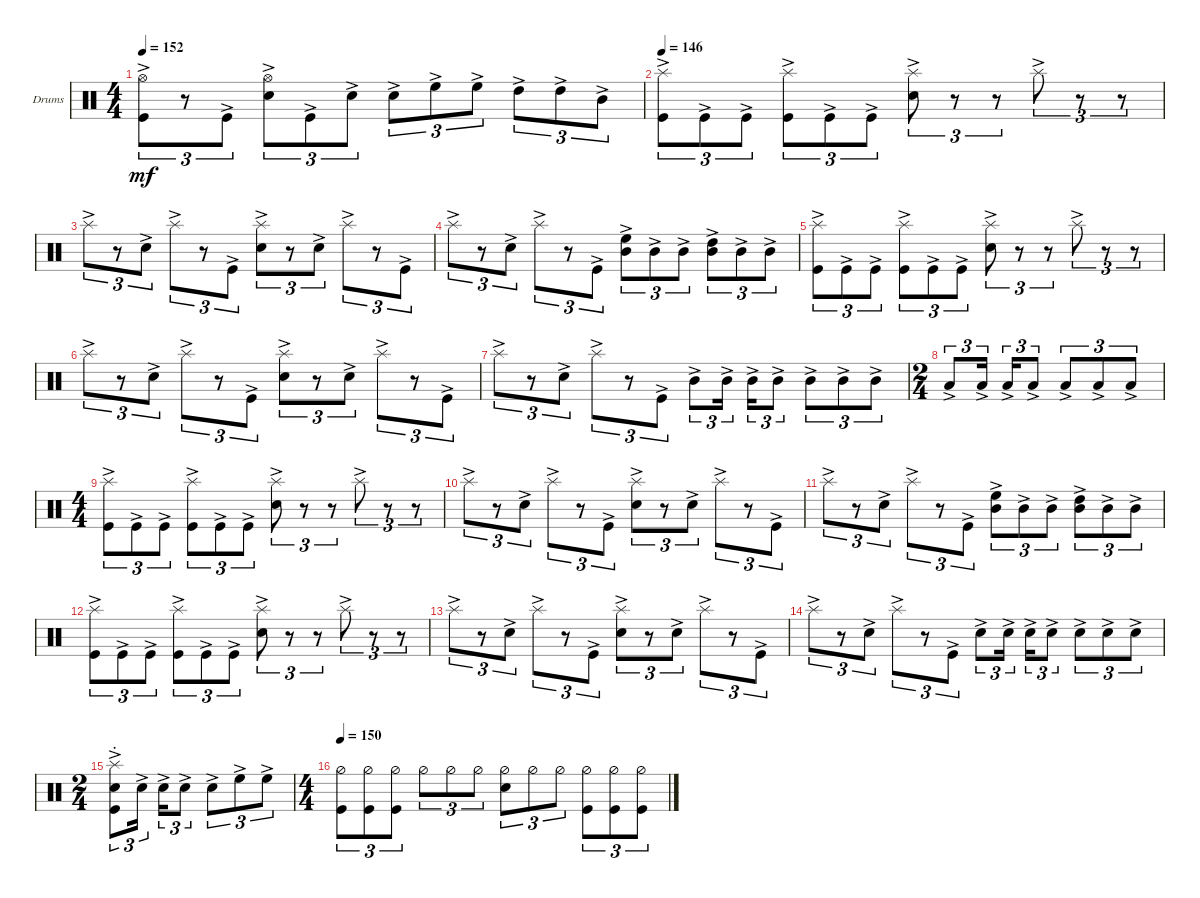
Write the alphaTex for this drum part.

\bracketExtendMode groupsimilarinstruments
\firstSystemTrackNameOrientation horizontal
\otherSystemsTrackNameOrientation horizontal
\track ("Drumkit" "Drums") {solo instrument percussion}
\staff {score}
\articulation defaults
\ts (4 4)
\tempo 152
\clef neutral
\ks c
("Kick (hit)"{ac} "Hi-Hat (open)"{ac}).8{tu (3 2) dy mf} r.8{tu (3 2)} "Kick (hit)"{ac}.8{tu (3 2)} ("Snare (hit) 2"{ac} "Hi-Hat (open)"{ac}).8{tu (3 2)} "Kick (hit)"{ac}.8{tu (3 2)} "Snare (hit) 2"{ac}.8{tu (3 2)} "Snare (hit) 2"{ac}.8{tu (3 2)} "High Floor Tom (hit)"{ac}.8{tu (3 2)} "High Floor Tom (hit)"{ac}.8{tu (3 2)} "High Tom (hit)"{ac}.8{tu (3 2)} "High Tom (hit)"{ac}.8{tu (3 2)} "Mid Tom (hit)"{ac}.8{tu (3 2)} |
\tempo 146
("Kick (hit)"{ac} "Splash (hit)"{ac}).8{tu (3 2)} "Kick (hit)"{ac}.8{tu (3 2)} "Kick (hit)"{ac}.8{tu (3 2)} ("Kick (hit)"{ac} "Splash (hit)"{ac}).8{tu (3 2)} "Kick (hit)"{ac}.8{tu (3 2)} "Kick (hit)"{ac}.8{tu (3 2)} ("Snare (hit) 2"{ac} "Splash (hit)"{ac}).8{tu (3 2)} r.8{tu (3 2)} r.8{tu (3 2)} "Splash (hit)"{ac}.8{tu (3 2)} r.8{tu (3 2)} r.8{tu (3 2)} |
"Splash (hit)"{ac}.8{tu (3 2)} r.8{tu (3 2)} "Snare (hit) 2"{ac}.8{tu (3 2)} "Splash (hit)"{ac}.8{tu (3 2)} r.8{tu (3 2)} "Kick (hit)"{ac}.8{tu (3 2)} ("Splash (hit)"{ac} "Snare (hit) 2"{ac}).8{tu (3 2)} r.8{tu (3 2)} "Snare (hit) 2"{ac}.8{tu (3 2)} "Splash (hit)"{ac}.8{tu (3 2)} r.8{tu (3 2)} "Kick (hit)"{ac}.8{tu (3 2)} |
"Splash (hit)"{ac}.8{tu (3 2)} r.8{tu (3 2)} "Snare (hit) 2"{ac}.8{tu (3 2)} "Splash (hit)"{ac}.8{tu (3 2)} r.8{tu (3 2)} "Kick (hit)"{ac}.8{tu (3 2)} ("Mid Tom (hit)"{ac} "High Floor Tom (hit)"{ac}).8{tu (3 2)} "Mid Tom (hit)"{ac}.8{tu (3 2)} "Mid Tom (hit)"{ac}.8{tu (3 2)} ("Mid Tom (hit)"{ac} "High Tom (hit)"{ac}).8{tu (3 2)} "Mid Tom (hit)"{ac}.8{tu (3 2)} "Mid Tom (hit)"{ac}.8{tu (3 2)} |
("Kick (hit)"{ac} "Splash (hit)"{ac}).8{tu (3 2)} "Kick (hit)"{ac}.8{tu (3 2)} "Kick (hit)"{ac}.8{tu (3 2)} ("Kick (hit)"{ac} "Splash (hit)"{ac}).8{tu (3 2)} "Kick (hit)"{ac}.8{tu (3 2)} "Kick (hit)"{ac}.8{tu (3 2)} ("Snare (hit) 2"{ac} "Splash (hit)"{ac}).8{tu (3 2)} r.8{tu (3 2)} r.8{tu (3 2)} "Splash (hit)"{ac}.8{tu (3 2)} r.8{tu (3 2)} r.8{tu (3 2)} |
"Splash (hit)"{ac}.8{tu (3 2)} r.8{tu (3 2)} "Snare (hit) 2"{ac}.8{tu (3 2)} "Splash (hit)"{ac}.8{tu (3 2)} r.8{tu (3 2)} "Kick (hit)"{ac}.8{tu (3 2)} ("Splash (hit)"{ac} "Snare (hit) 2"{ac}).8{tu (3 2)} r.8{tu (3 2)} "Snare (hit) 2"{ac}.8{tu (3 2)} "Splash (hit)"{ac}.8{tu (3 2)} r.8{tu (3 2)} "Kick (hit)"{ac}.8{tu (3 2)} |
"Splash (hit)"{ac}.8{tu (3 2)} r.8{tu (3 2)} "Snare (hit) 2"{ac}.8{tu (3 2)} "Splash (hit)"{ac}.8{tu (3 2)} r.8{tu (3 2)} "Kick (hit)"{ac}.8{tu (3 2)} "Mid Tom (hit)"{ac}.8{tu (3 2)} "Mid Tom (hit)"{ac}.16{tu (3 2)} "Mid Tom (hit)"{ac}.16{tu (3 2)} "Mid Tom (hit)"{ac}.8{tu (3 2)} "Mid Tom (hit)"{ac}.8{tu (3 2)} "Mid Tom (hit)"{ac}.8{tu (3 2)} "Mid Tom (hit)"{ac}.8{tu (3 2)} |
\ts (2 4)
"Low Tom (hit)"{ac}.8{tu (3 2)} "Low Tom (hit)"{ac}.16{tu (3 2)} "Low Tom (hit)"{ac}.16{tu (3 2)} "Low Tom (hit)"{ac}.8{tu (3 2)} "Low Tom (hit)"{ac}.8{tu (3 2)} "Low Tom (hit)"{ac}.8{tu (3 2)} "Low Tom (hit)"{ac}.8{tu (3 2)} |
\ts (4 4)
("Kick (hit)"{ac} "Splash (hit)"{ac}).8{tu (3 2)} "Kick (hit)"{ac}.8{tu (3 2)} "Kick (hit)"{ac}.8{tu (3 2)} ("Kick (hit)"{ac} "Splash (hit)"{ac}).8{tu (3 2)} "Kick (hit)"{ac}.8{tu (3 2)} "Kick (hit)"{ac}.8{tu (3 2)} ("Snare (hit) 2"{ac} "Splash (hit)"{ac}).8{tu (3 2)} r.8{tu (3 2)} r.8{tu (3 2)} "Splash (hit)"{ac}.8{tu (3 2)} r.8{tu (3 2)} r.8{tu (3 2)} |
"Splash (hit)"{ac}.8{tu (3 2)} r.8{tu (3 2)} "Snare (hit) 2"{ac}.8{tu (3 2)} "Splash (hit)"{ac}.8{tu (3 2)} r.8{tu (3 2)} "Kick (hit)"{ac}.8{tu (3 2)} ("Splash (hit)"{ac} "Snare (hit) 2"{ac}).8{tu (3 2)} r.8{tu (3 2)} "Snare (hit) 2"{ac}.8{tu (3 2)} "Splash (hit)"{ac}.8{tu (3 2)} r.8{tu (3 2)} "Kick (hit)"{ac}.8{tu (3 2)} |
"Splash (hit)"{ac}.8{tu (3 2)} r.8{tu (3 2)} "Snare (hit) 2"{ac}.8{tu (3 2)} "Splash (hit)"{ac}.8{tu (3 2)} r.8{tu (3 2)} "Kick (hit)"{ac}.8{tu (3 2)} ("Mid Tom (hit)"{ac} "High Floor Tom (hit)"{ac}).8{tu (3 2)} "Mid Tom (hit)"{ac}.8{tu (3 2)} "Mid Tom (hit)"{ac}.8{tu (3 2)} ("Mid Tom (hit)"{ac} "High Tom (hit)"{ac}).8{tu (3 2)} "Mid Tom (hit)"{ac}.8{tu (3 2)} "Mid Tom (hit)"{ac}.8{tu (3 2)} |
("Kick (hit)"{ac} "Splash (hit)"{ac}).8{tu (3 2)} "Kick (hit)"{ac}.8{tu (3 2)} "Kick (hit)"{ac}.8{tu (3 2)} ("Kick (hit)"{ac} "Splash (hit)"{ac}).8{tu (3 2)} "Kick (hit)"{ac}.8{tu (3 2)} "Kick (hit)"{ac}.8{tu (3 2)} ("Snare (hit) 2"{ac} "Splash (hit)"{ac}).8{tu (3 2)} r.8{tu (3 2)} r.8{tu (3 2)} "Splash (hit)"{ac}.8{tu (3 2)} r.8{tu (3 2)} r.8{tu (3 2)} |
"Splash (hit)"{ac}.8{tu (3 2)} r.8{tu (3 2)} "Snare (hit) 2"{ac}.8{tu (3 2)} "Splash (hit)"{ac}.8{tu (3 2)} r.8{tu (3 2)} "Kick (hit)"{ac}.8{tu (3 2)} ("Splash (hit)"{ac} "Snare (hit) 2"{ac}).8{tu (3 2)} r.8{tu (3 2)} "Snare (hit) 2"{ac}.8{tu (3 2)} "Splash (hit)"{ac}.8{tu (3 2)} r.8{tu (3 2)} "Kick (hit)"{ac}.8{tu (3 2)} |
"Splash (hit)"{ac}.8{tu (3 2)} r.8{tu (3 2)} "Snare (hit) 2"{ac}.8{tu (3 2)} "Splash (hit)"{ac}.8{tu (3 2)} r.8{tu (3 2)} "Kick (hit)"{ac}.8{tu (3 2)} "Snare (hit) 2"{ac}.8{tu (3 2)} "Snare (hit) 2"{ac}.16{tu (3 2)} "Snare (hit) 2"{ac}.16{tu (3 2)} "Snare (hit) 2"{ac}.8{tu (3 2)} "Snare (hit) 2"{ac}.8{tu (3 2)} "Snare (hit) 2"{ac}.8{tu (3 2)} "Snare (hit) 2"{ac}.8{tu (3 2)} |
\ts (2 4)
("Snare (hit) 2"{ac} "Splash (hit)"{ac st} "Kick (hit)"{ac}).8{tu (3 2)} "Snare (hit) 2"{ac}.16{tu (3 2)} "Snare (hit) 2"{ac}.16{tu (3 2)} "Snare (hit) 2"{ac}.8{tu (3 2)} "Snare (hit) 2"{ac}.8{tu (3 2)} "High Floor Tom (hit)"{ac}.8{tu (3 2)} "High Floor Tom (hit)"{ac}.8{tu (3 2)} |
\ts (4 4)
\tempo 150
("Kick (hit)" "Hi-Hat (half)").8{tu (3 2)} ("Kick (hit)" "Hi-Hat (half)").8{tu (3 2)} ("Kick (hit)" "Hi-Hat (half)").8{tu (3 2)} "Hi-Hat (half)".8{tu (3 2)} "Hi-Hat (half)".8{tu (3 2)} "Hi-Hat (half)".8{tu (3 2)} ("Snare (hit) 2" "Hi-Hat (half)").8{tu (3 2)} "Hi-Hat (half)".8{tu (3 2)} "Hi-Hat (half)".8{tu (3 2)} ("Kick (hit)" "Hi-Hat (half)").8{tu (3 2)} ("Kick (hit)" "Hi-Hat (half)").8{tu (3 2)} ("Kick (hit)" "Hi-Hat (half)").8{tu (3 2)}
